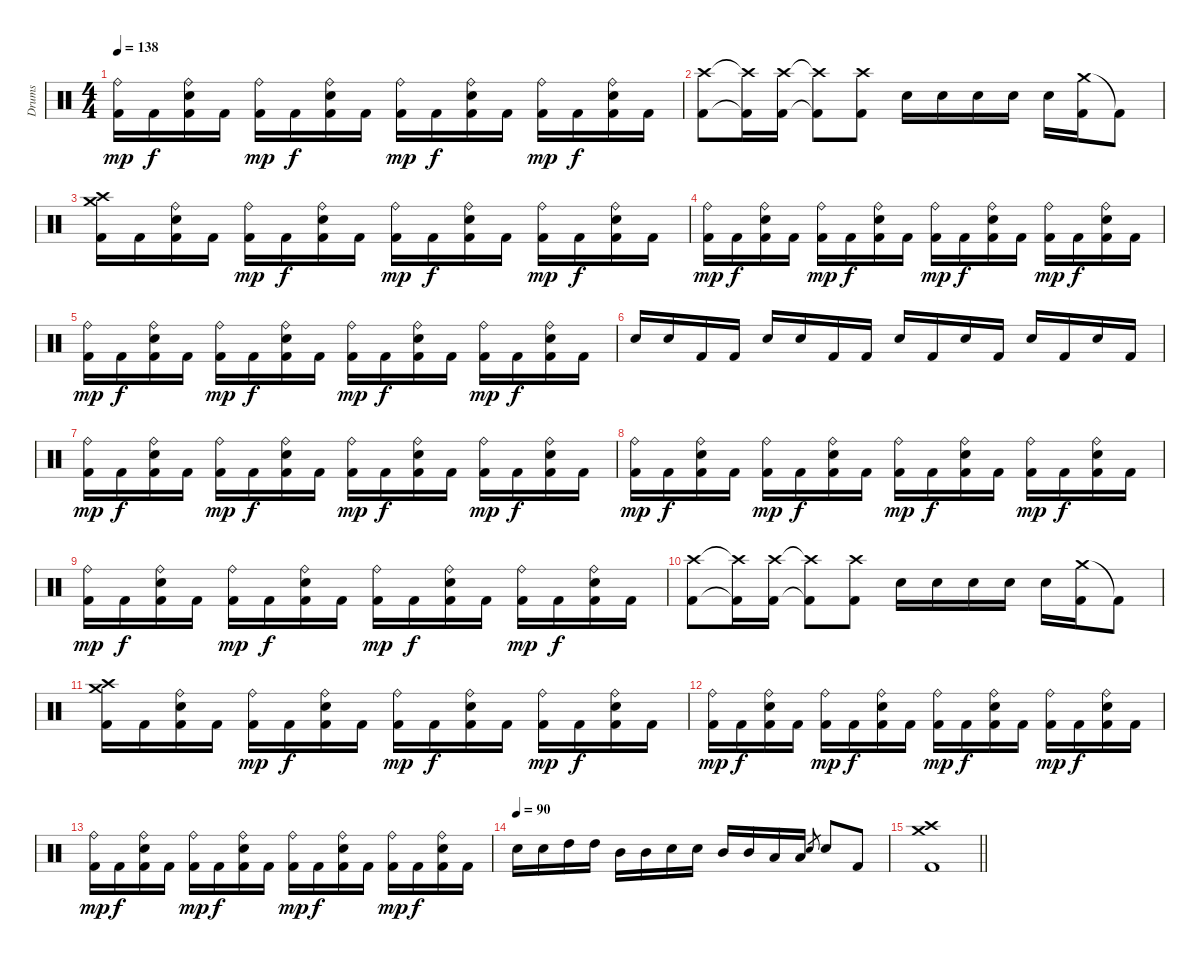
\track ("Drums" "Drums") {instrument percussion}
\staff {score}
\articulation defaults
\ts (4 4)
\tempo 138
\clef neutral
\ks c
("Ride (bell)" "Kick (hit) 2").16{dy mp} "Kick (hit) 2".16{dy f} ("Ride (bell)" "Electric Snare (hit)" "Kick (hit) 2").16 "Kick (hit) 2".16 ("Ride (bell)" "Kick (hit) 2").16{dy mp} "Kick (hit) 2".16{dy f} ("Ride (bell)" "Electric Snare (hit)" "Kick (hit) 2").16 "Kick (hit) 2".16 ("Ride (bell)" "Kick (hit) 2").16{dy mp} "Kick (hit) 2".16{dy f} ("Ride (bell)" "Electric Snare (hit)" "Kick (hit) 2").16 "Kick (hit) 2".16 ("Ride (bell)" "Kick (hit) 2").16{dy mp} "Kick (hit) 2".16{dy f} ("Ride (bell)" "Electric Snare (hit)" "Kick (hit) 2").16 "Kick (hit) 2".16 |
("Crash high (hit)" "Kick (hit) 2").8 ("Crash high (hit)"{t} "Kick (hit) 2"{t}).16 ("Crash high (hit)" "Kick (hit) 2").16 ("Crash high (hit)"{t} "Kick (hit) 2"{t}).8 ("Crash high (hit)" "Kick (hit) 2").8 "Electric Snare (hit)".16 "Electric Snare (hit)".16 "Electric Snare (hit)".16 "Electric Snare (hit)".16 "Electric Snare (hit)".16 ("Crash medium (hit)" "Kick (hit) 2").16 "Kick (hit) 2"{t}.8 |
("Crash high (hit)" "Crash medium (hit)" "Kick (hit) 2").16 "Kick (hit) 2".16 ("Ride (bell)" "Electric Snare (hit)" "Kick (hit) 2").16 "Kick (hit) 2".16 ("Ride (bell)" "Kick (hit) 2").16{dy mp} "Kick (hit) 2".16{dy f} ("Ride (bell)" "Electric Snare (hit)" "Kick (hit) 2").16 "Kick (hit) 2".16 ("Ride (bell)" "Kick (hit) 2").16{dy mp} "Kick (hit) 2".16{dy f} ("Ride (bell)" "Electric Snare (hit)" "Kick (hit) 2").16 "Kick (hit) 2".16 ("Ride (bell)" "Kick (hit) 2").16{dy mp} "Kick (hit) 2".16{dy f} ("Ride (bell)" "Electric Snare (hit)" "Kick (hit) 2").16 "Kick (hit) 2".16 |
("Ride (bell)" "Kick (hit) 2").16{dy mp} "Kick (hit) 2".16{dy f} ("Ride (bell)" "Electric Snare (hit)" "Kick (hit) 2").16 "Kick (hit) 2".16 ("Ride (bell)" "Kick (hit) 2").16{dy mp} "Kick (hit) 2".16{dy f} ("Ride (bell)" "Electric Snare (hit)" "Kick (hit) 2").16 "Kick (hit) 2".16 ("Ride (bell)" "Kick (hit) 2").16{dy mp} "Kick (hit) 2".16{dy f} ("Ride (bell)" "Electric Snare (hit)" "Kick (hit) 2").16 "Kick (hit) 2".16 ("Ride (bell)" "Kick (hit) 2").16{dy mp} "Kick (hit) 2".16{dy f} ("Ride (bell)" "Electric Snare (hit)" "Kick (hit) 2").16 "Kick (hit) 2".16 |
("Ride (bell)" "Kick (hit) 2").16{dy mp} "Kick (hit) 2".16{dy f} ("Ride (bell)" "Electric Snare (hit)" "Kick (hit) 2").16 "Kick (hit) 2".16 ("Ride (bell)" "Kick (hit) 2").16{dy mp} "Kick (hit) 2".16{dy f} ("Ride (bell)" "Electric Snare (hit)" "Kick (hit) 2").16 "Kick (hit) 2".16 ("Ride (bell)" "Kick (hit) 2").16{dy mp} "Kick (hit) 2".16{dy f} ("Ride (bell)" "Electric Snare (hit)" "Kick (hit) 2").16 "Kick (hit) 2".16 ("Ride (bell)" "Kick (hit) 2").16{dy mp} "Kick (hit) 2".16{dy f} ("Ride (bell)" "Electric Snare (hit)" "Kick (hit) 2").16 "Kick (hit) 2".16 |
"Electric Snare (hit)".16 "Electric Snare (hit)".16 "Kick (hit) 2".16 "Kick (hit) 2".16 "Electric Snare (hit)".16 "Electric Snare (hit)".16 "Kick (hit) 2".16 "Kick (hit) 2".16 "Electric Snare (hit)".16 "Kick (hit) 2".16 "Electric Snare (hit)".16 "Kick (hit) 2".16 "Electric Snare (hit)".16 "Kick (hit) 2".16 "Electric Snare (hit)".16 "Kick (hit) 2".16 |
("Ride (bell)" "Kick (hit) 2").16{dy mp} "Kick (hit) 2".16{dy f} ("Ride (bell)" "Electric Snare (hit)" "Kick (hit) 2").16 "Kick (hit) 2".16 ("Ride (bell)" "Kick (hit) 2").16{dy mp} "Kick (hit) 2".16{dy f} ("Ride (bell)" "Electric Snare (hit)" "Kick (hit) 2").16 "Kick (hit) 2".16 ("Ride (bell)" "Kick (hit) 2").16{dy mp} "Kick (hit) 2".16{dy f} ("Ride (bell)" "Electric Snare (hit)" "Kick (hit) 2").16 "Kick (hit) 2".16 ("Ride (bell)" "Kick (hit) 2").16{dy mp} "Kick (hit) 2".16{dy f} ("Ride (bell)" "Electric Snare (hit)" "Kick (hit) 2").16 "Kick (hit) 2".16 |
("Ride (bell)" "Kick (hit) 2").16{dy mp} "Kick (hit) 2".16{dy f} ("Ride (bell)" "Electric Snare (hit)" "Kick (hit) 2").16 "Kick (hit) 2".16 ("Ride (bell)" "Kick (hit) 2").16{dy mp} "Kick (hit) 2".16{dy f} ("Ride (bell)" "Electric Snare (hit)" "Kick (hit) 2").16 "Kick (hit) 2".16 ("Ride (bell)" "Kick (hit) 2").16{dy mp} "Kick (hit) 2".16{dy f} ("Ride (bell)" "Electric Snare (hit)" "Kick (hit) 2").16 "Kick (hit) 2".16 ("Ride (bell)" "Kick (hit) 2").16{dy mp} "Kick (hit) 2".16{dy f} ("Ride (bell)" "Electric Snare (hit)" "Kick (hit) 2").16 "Kick (hit) 2".16 |
("Ride (bell)" "Kick (hit) 2").16{dy mp} "Kick (hit) 2".16{dy f} ("Ride (bell)" "Electric Snare (hit)" "Kick (hit) 2").16 "Kick (hit) 2".16 ("Ride (bell)" "Kick (hit) 2").16{dy mp} "Kick (hit) 2".16{dy f} ("Ride (bell)" "Electric Snare (hit)" "Kick (hit) 2").16 "Kick (hit) 2".16 ("Ride (bell)" "Kick (hit) 2").16{dy mp} "Kick (hit) 2".16{dy f} ("Ride (bell)" "Electric Snare (hit)" "Kick (hit) 2").16 "Kick (hit) 2".16 ("Ride (bell)" "Kick (hit) 2").16{dy mp} "Kick (hit) 2".16{dy f} ("Ride (bell)" "Electric Snare (hit)" "Kick (hit) 2").16 "Kick (hit) 2".16 |
("Crash high (hit)" "Kick (hit) 2").8 ("Crash high (hit)"{t} "Kick (hit) 2"{t}).16 ("Crash high (hit)" "Kick (hit) 2").16 ("Crash high (hit)"{t} "Kick (hit) 2"{t}).8 ("Crash high (hit)" "Kick (hit) 2").8 "Electric Snare (hit)".16 "Electric Snare (hit)".16 "Electric Snare (hit)".16 "Electric Snare (hit)".16 "Electric Snare (hit)".16 ("Crash medium (hit)" "Kick (hit) 2").16 "Kick (hit) 2"{t}.8 |
("Crash high (hit)" "Crash medium (hit)" "Kick (hit) 2").16 "Kick (hit) 2".16 ("Ride (bell)" "Electric Snare (hit)" "Kick (hit) 2").16 "Kick (hit) 2".16 ("Ride (bell)" "Kick (hit) 2").16{dy mp} "Kick (hit) 2".16{dy f} ("Ride (bell)" "Electric Snare (hit)" "Kick (hit) 2").16 "Kick (hit) 2".16 ("Ride (bell)" "Kick (hit) 2").16{dy mp} "Kick (hit) 2".16{dy f} ("Ride (bell)" "Electric Snare (hit)" "Kick (hit) 2").16 "Kick (hit) 2".16 ("Ride (bell)" "Kick (hit) 2").16{dy mp} "Kick (hit) 2".16{dy f} ("Ride (bell)" "Electric Snare (hit)" "Kick (hit) 2").16 "Kick (hit) 2".16 |
("Ride (bell)" "Kick (hit) 2").16{dy mp} "Kick (hit) 2".16{dy f} ("Ride (bell)" "Electric Snare (hit)" "Kick (hit) 2").16 "Kick (hit) 2".16 ("Ride (bell)" "Kick (hit) 2").16{dy mp} "Kick (hit) 2".16{dy f} ("Ride (bell)" "Electric Snare (hit)" "Kick (hit) 2").16 "Kick (hit) 2".16 ("Ride (bell)" "Kick (hit) 2").16{dy mp} "Kick (hit) 2".16{dy f} ("Ride (bell)" "Electric Snare (hit)" "Kick (hit) 2").16 "Kick (hit) 2".16 ("Ride (bell)" "Kick (hit) 2").16{dy mp} "Kick (hit) 2".16{dy f} ("Ride (bell)" "Electric Snare (hit)" "Kick (hit) 2").16 "Kick (hit) 2".16 |
("Ride (bell)" "Kick (hit) 2").16{dy mp} "Kick (hit) 2".16{dy f} ("Ride (bell)" "Electric Snare (hit)" "Kick (hit) 2").16 "Kick (hit) 2".16 ("Ride (bell)" "Kick (hit) 2").16{dy mp} "Kick (hit) 2".16{dy f} ("Ride (bell)" "Electric Snare (hit)" "Kick (hit) 2").16 "Kick (hit) 2".16 ("Ride (bell)" "Kick (hit) 2").16{dy mp} "Kick (hit) 2".16{dy f} ("Ride (bell)" "Electric Snare (hit)" "Kick (hit) 2").16 "Kick (hit) 2".16 ("Ride (bell)" "Kick (hit) 2").16{dy mp} "Kick (hit) 2".16{dy f} ("Ride (bell)" "Electric Snare (hit)" "Kick (hit) 2").16 "Kick (hit) 2".16 |
\tempo (90)
"Electric Snare (hit)".16 "Electric Snare (hit)".16 "High Tom (hit)".16 "High Tom (hit)".16 "Mid Tom (hit)".16 "Mid Tom (hit)".16 "Electric Snare (hit)".16 "Electric Snare (hit)".16 "Mid Tom (hit)".16 "Mid Tom (hit)".16 "Low Tom (hit)".16 "Low Tom (hit)".16 "Electric Snare (hit)".8{gr} "Electric Snare (hit)".8 "Kick (hit) 2".8 |
\barLineRight lightlight
("Crash high (hit)" "Crash medium (hit)" "Kick (hit) 2").1
